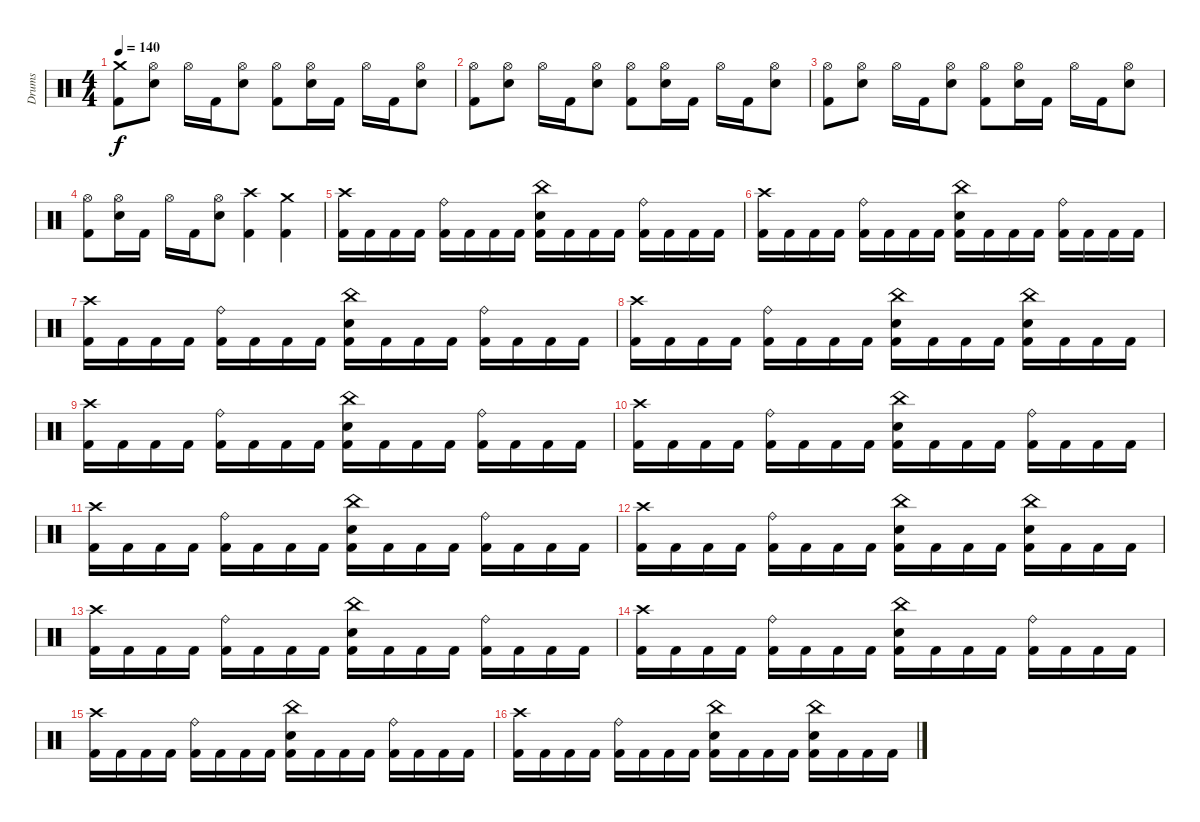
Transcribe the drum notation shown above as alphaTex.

\track ("Drums" "Drums") {instrument percussion}
\staff {score}
\articulation defaults
\ts (4 4)
\tempo 140
\clef neutral
\ks c
("Crash medium (hit)" "Kick (hit) 2").8{dy f} ("Hi-Hat (open)" "Electric Snare (hit)").8 "Hi-Hat (open)".16 "Kick (hit) 2".16 ("Hi-Hat (open)" "Electric Snare (hit)").8 ("Hi-Hat (open)" "Kick (hit) 2").8 ("Hi-Hat (open)" "Electric Snare (hit)").16 "Kick (hit) 2".16 "Hi-Hat (open)".16 "Kick (hit) 2".16 ("Hi-Hat (open)" "Electric Snare (hit)").8 |
("Hi-Hat (open)" "Kick (hit) 2").8 ("Hi-Hat (open)" "Electric Snare (hit)").8 "Hi-Hat (open)".16 "Kick (hit) 2".16 ("Hi-Hat (open)" "Electric Snare (hit)").8 ("Hi-Hat (open)" "Kick (hit) 2").8 ("Hi-Hat (open)" "Electric Snare (hit)").16 "Kick (hit) 2".16 "Hi-Hat (open)".16 "Kick (hit) 2".16 ("Hi-Hat (open)" "Electric Snare (hit)").8 |
("Hi-Hat (open)" "Kick (hit) 2").8 ("Hi-Hat (open)" "Electric Snare (hit)").8 "Hi-Hat (open)".16 "Kick (hit) 2".16 ("Hi-Hat (open)" "Electric Snare (hit)").8 ("Hi-Hat (open)" "Kick (hit) 2").8 ("Hi-Hat (open)" "Electric Snare (hit)").16 "Kick (hit) 2".16 "Hi-Hat (open)".16 "Kick (hit) 2".16 ("Hi-Hat (open)" "Electric Snare (hit)").8 |
("Hi-Hat (open)" "Kick (hit) 2").8 ("Hi-Hat (open)" "Electric Snare (hit)").16 "Kick (hit) 2".16 "Hi-Hat (open)".16 "Kick (hit) 2".16 ("Hi-Hat (open)" "Electric Snare (hit)").8 ("Crash high (hit)" "Kick (hit) 2").4 ("Crash medium (hit)" "Kick (hit) 2").4 |
("Crash high (hit)" "Kick (hit) 2").16 "Kick (hit) 2".16 "Kick (hit) 2".16 "Kick (hit) 2".16 ("Ride (bell)" "Kick (hit) 2").16 "Kick (hit) 2".16 "Kick (hit) 2".16 "Kick (hit) 2".16 ("China (hit)" "Electric Snare (hit)" "Kick (hit) 2").16 "Kick (hit) 2".16 "Kick (hit) 2".16 "Kick (hit) 2".16 ("Ride (bell)" "Kick (hit) 2").16 "Kick (hit) 2".16 "Kick (hit) 2".16 "Kick (hit) 2".16 |
("Crash high (hit)" "Kick (hit) 2").16 "Kick (hit) 2".16 "Kick (hit) 2".16 "Kick (hit) 2".16 ("Ride (bell)" "Kick (hit) 2").16 "Kick (hit) 2".16 "Kick (hit) 2".16 "Kick (hit) 2".16 ("China (hit)" "Electric Snare (hit)" "Kick (hit) 2").16 "Kick (hit) 2".16 "Kick (hit) 2".16 "Kick (hit) 2".16 ("Ride (bell)" "Kick (hit) 2").16 "Kick (hit) 2".16 "Kick (hit) 2".16 "Kick (hit) 2".16 |
("Crash high (hit)" "Kick (hit) 2").16 "Kick (hit) 2".16 "Kick (hit) 2".16 "Kick (hit) 2".16 ("Ride (bell)" "Kick (hit) 2").16 "Kick (hit) 2".16 "Kick (hit) 2".16 "Kick (hit) 2".16 ("China (hit)" "Electric Snare (hit)" "Kick (hit) 2").16 "Kick (hit) 2".16 "Kick (hit) 2".16 "Kick (hit) 2".16 ("Ride (bell)" "Kick (hit) 2").16 "Kick (hit) 2".16 "Kick (hit) 2".16 "Kick (hit) 2".16 |
("Crash high (hit)" "Kick (hit) 2").16 "Kick (hit) 2".16 "Kick (hit) 2".16 "Kick (hit) 2".16 ("Ride (bell)" "Kick (hit) 2").16 "Kick (hit) 2".16 "Kick (hit) 2".16 "Kick (hit) 2".16 ("China (hit)" "Electric Snare (hit)" "Kick (hit) 2").16 "Kick (hit) 2".16 "Kick (hit) 2".16 "Kick (hit) 2".16 ("China (hit)" "Electric Snare (hit)" "Kick (hit) 2").16 "Kick (hit) 2".16 "Kick (hit) 2".16 "Kick (hit) 2".16 |
("Crash high (hit)" "Kick (hit) 2").16 "Kick (hit) 2".16 "Kick (hit) 2".16 "Kick (hit) 2".16 ("Ride (bell)" "Kick (hit) 2").16 "Kick (hit) 2".16 "Kick (hit) 2".16 "Kick (hit) 2".16 ("China (hit)" "Electric Snare (hit)" "Kick (hit) 2").16 "Kick (hit) 2".16 "Kick (hit) 2".16 "Kick (hit) 2".16 ("Ride (bell)" "Kick (hit) 2").16 "Kick (hit) 2".16 "Kick (hit) 2".16 "Kick (hit) 2".16 |
("Crash high (hit)" "Kick (hit) 2").16 "Kick (hit) 2".16 "Kick (hit) 2".16 "Kick (hit) 2".16 ("Ride (bell)" "Kick (hit) 2").16 "Kick (hit) 2".16 "Kick (hit) 2".16 "Kick (hit) 2".16 ("China (hit)" "Electric Snare (hit)" "Kick (hit) 2").16 "Kick (hit) 2".16 "Kick (hit) 2".16 "Kick (hit) 2".16 ("Ride (bell)" "Kick (hit) 2").16 "Kick (hit) 2".16 "Kick (hit) 2".16 "Kick (hit) 2".16 |
("Crash high (hit)" "Kick (hit) 2").16 "Kick (hit) 2".16 "Kick (hit) 2".16 "Kick (hit) 2".16 ("Ride (bell)" "Kick (hit) 2").16 "Kick (hit) 2".16 "Kick (hit) 2".16 "Kick (hit) 2".16 ("China (hit)" "Electric Snare (hit)" "Kick (hit) 2").16 "Kick (hit) 2".16 "Kick (hit) 2".16 "Kick (hit) 2".16 ("Ride (bell)" "Kick (hit) 2").16 "Kick (hit) 2".16 "Kick (hit) 2".16 "Kick (hit) 2".16 |
("Crash high (hit)" "Kick (hit) 2").16 "Kick (hit) 2".16 "Kick (hit) 2".16 "Kick (hit) 2".16 ("Ride (bell)" "Kick (hit) 2").16 "Kick (hit) 2".16 "Kick (hit) 2".16 "Kick (hit) 2".16 ("China (hit)" "Electric Snare (hit)" "Kick (hit) 2").16 "Kick (hit) 2".16 "Kick (hit) 2".16 "Kick (hit) 2".16 ("China (hit)" "Electric Snare (hit)" "Kick (hit) 2").16 "Kick (hit) 2".16 "Kick (hit) 2".16 "Kick (hit) 2".16 |
("Crash high (hit)" "Kick (hit) 2").16 "Kick (hit) 2".16 "Kick (hit) 2".16 "Kick (hit) 2".16 ("Ride (bell)" "Kick (hit) 2").16 "Kick (hit) 2".16 "Kick (hit) 2".16 "Kick (hit) 2".16 ("China (hit)" "Electric Snare (hit)" "Kick (hit) 2").16 "Kick (hit) 2".16 "Kick (hit) 2".16 "Kick (hit) 2".16 ("Ride (bell)" "Kick (hit) 2").16 "Kick (hit) 2".16 "Kick (hit) 2".16 "Kick (hit) 2".16 |
("Crash high (hit)" "Kick (hit) 2").16 "Kick (hit) 2".16 "Kick (hit) 2".16 "Kick (hit) 2".16 ("Ride (bell)" "Kick (hit) 2").16 "Kick (hit) 2".16 "Kick (hit) 2".16 "Kick (hit) 2".16 ("China (hit)" "Electric Snare (hit)" "Kick (hit) 2").16 "Kick (hit) 2".16 "Kick (hit) 2".16 "Kick (hit) 2".16 ("Ride (bell)" "Kick (hit) 2").16 "Kick (hit) 2".16 "Kick (hit) 2".16 "Kick (hit) 2".16 |
("Crash high (hit)" "Kick (hit) 2").16 "Kick (hit) 2".16 "Kick (hit) 2".16 "Kick (hit) 2".16 ("Ride (bell)" "Kick (hit) 2").16 "Kick (hit) 2".16 "Kick (hit) 2".16 "Kick (hit) 2".16 ("China (hit)" "Electric Snare (hit)" "Kick (hit) 2").16 "Kick (hit) 2".16 "Kick (hit) 2".16 "Kick (hit) 2".16 ("Ride (bell)" "Kick (hit) 2").16 "Kick (hit) 2".16 "Kick (hit) 2".16 "Kick (hit) 2".16 |
("Crash high (hit)" "Kick (hit) 2").16 "Kick (hit) 2".16 "Kick (hit) 2".16 "Kick (hit) 2".16 ("Ride (bell)" "Kick (hit) 2").16 "Kick (hit) 2".16 "Kick (hit) 2".16 "Kick (hit) 2".16 ("China (hit)" "Electric Snare (hit)" "Kick (hit) 2").16 "Kick (hit) 2".16 "Kick (hit) 2".16 "Kick (hit) 2".16 ("China (hit)" "Electric Snare (hit)" "Kick (hit) 2").16 "Kick (hit) 2".16 "Kick (hit) 2".16 "Kick (hit) 2".16
